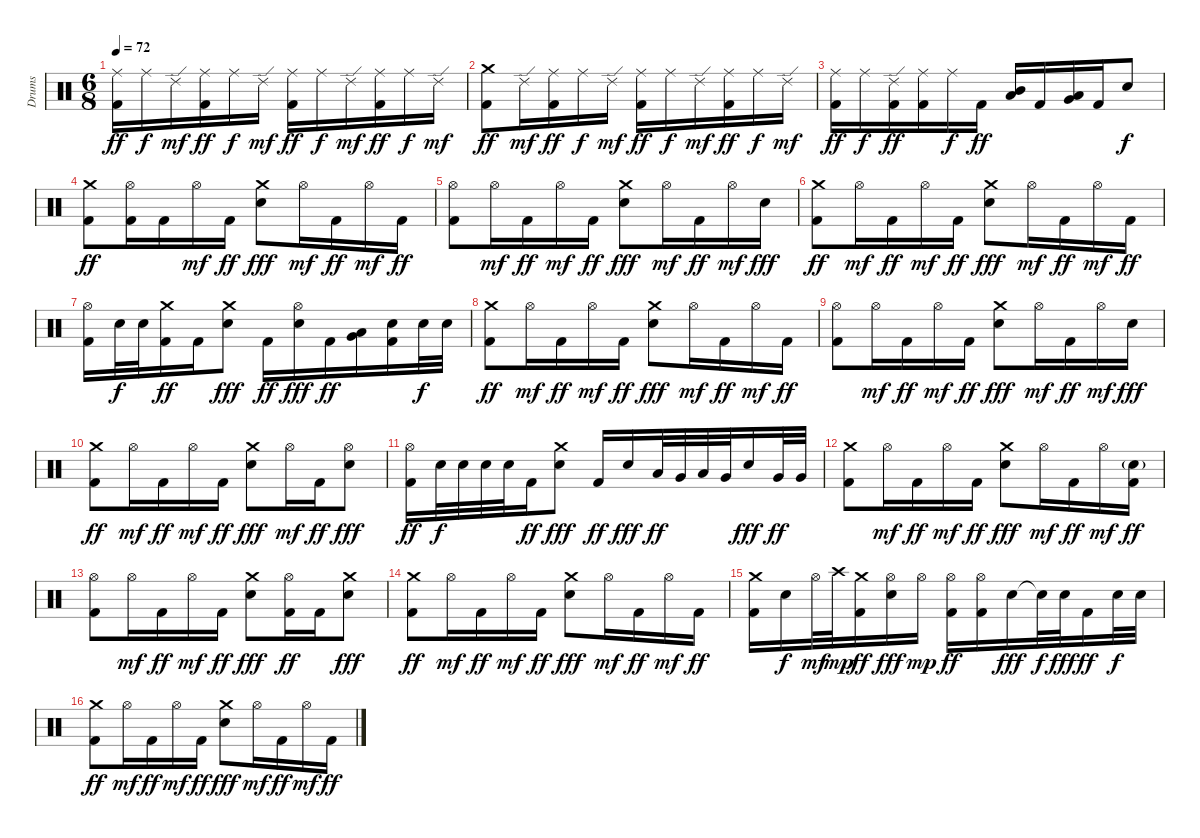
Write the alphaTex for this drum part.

\track ("Drums" "Drums") {instrument percussion}
\staff {score}
\articulation defaults
\ts (6 8)
\tempo 72
\clef neutral
\ks c
("Ride (middle)" "Kick (hit) 2").16{dy ff} "Ride (middle)".16{dy f} "Ride (edge) 2".16{dy mf} ("Ride (middle)" "Kick (hit) 2").16{dy ff} "Ride (middle)".16{dy f} "Ride (edge) 2".16{dy mf} ("Ride (middle)" "Kick (hit) 2").16{dy ff} "Ride (middle)".16{dy f} "Ride (edge) 2".16{dy mf} ("Ride (middle)" "Kick (hit) 2").16{dy ff} "Ride (middle)".16{dy f} "Ride (edge) 2".16{dy mf} |
("Crash medium (hit)" "Kick (hit) 2").8{dy ff} "Ride (edge) 2".16{dy mf} ("Ride (middle)" "Kick (hit) 2").16{dy ff} "Ride (middle)".16{dy f} "Ride (edge) 2".16{dy mf} ("Ride (middle)" "Kick (hit) 2").16{dy ff} "Ride (middle)".16{dy f} "Ride (edge) 2".16{dy mf} ("Ride (middle)" "Kick (hit) 2").16{dy ff} "Ride (middle)".16{dy f} "Ride (edge) 2".16{dy mf} |
("Ride (middle)" "Kick (hit) 2").16{dy ff} "Ride (middle)".16{dy f} ("Ride (edge) 2" "Kick (hit) 2").16{dy ff} ("Ride (middle)" "Kick (hit) 2").16 "Ride (middle)".16{dy f} "Kick (hit) 2".16{dy ff} ("Mid Tom (hit)" "Low Tom (hit)").16 "Kick (hit) 2".16 ("Low Tom (hit)" "Very Low Tom (hit)").16 "Kick (hit) 2".16 "Snare (hit) 2".8{dy f} |
("Crash medium (hit)" "Kick (hit) 2").8{dy ff} ("Hi-Hat (open)" "Kick (hit) 2").16 "Kick (hit) 2".16 "Hi-Hat (open)".16{dy mf} "Kick (hit) 2".16{dy ff} ("Crash medium (hit)" "Snare (hit) 2").8{dy fff} "Hi-Hat (open)".16{dy mf} "Kick (hit) 2".16{dy ff} "Hi-Hat (open)".16{dy mf} "Kick (hit) 2".16{dy ff} |
("Hi-Hat (open)" "Kick (hit) 2").8 "Hi-Hat (open)".16{dy mf} "Kick (hit) 2".16{dy ff} "Hi-Hat (open)".16{dy mf} "Kick (hit) 2".16{dy ff} ("Crash medium (hit)" "Snare (hit) 2").8{dy fff} "Hi-Hat (open)".16{dy mf} "Kick (hit) 2".16{dy ff} "Hi-Hat (open)".16{dy mf} "Snare (hit) 2".16{dy fff} |
("Crash medium (hit)" "Kick (hit) 2").8{dy ff} "Hi-Hat (open)".16{dy mf} "Kick (hit) 2".16{dy ff} "Hi-Hat (open)".16{dy mf} "Kick (hit) 2".16{dy ff} ("Crash medium (hit)" "Snare (hit) 2").8{dy fff} "Hi-Hat (open)".16{dy mf} "Kick (hit) 2".16{dy ff} "Hi-Hat (open)".16{dy mf} "Kick (hit) 2".16{dy ff} |
("Hi-Hat (open)" "Kick (hit) 2").16 "Snare (hit) 2".32{dy f} "Snare (hit) 2".32 ("Crash medium (hit)" "Kick (hit) 2").16{dy ff} "Kick (hit) 2".16 ("Crash medium (hit)" "Snare (hit) 2").8{dy fff} "Kick (hit) 2".16{dy ff} ("Hi-Hat (open)" "Snare (hit) 2").16{dy fff} "Kick (hit) 2".16{dy ff} ("Low Tom (hit)" "Very Low Tom (hit)").16 ("Snare (hit) 2" "Kick (hit) 2").16 "Snare (hit) 2".32{dy f} "Snare (hit) 2".32 |
("Crash medium (hit)" "Kick (hit) 2").8{dy ff} "Hi-Hat (open)".16{dy mf} "Kick (hit) 2".16{dy ff} "Hi-Hat (open)".16{dy mf} "Kick (hit) 2".16{dy ff} ("Crash medium (hit)" "Snare (hit) 2").8{dy fff} "Hi-Hat (open)".16{dy mf} "Kick (hit) 2".16{dy ff} "Hi-Hat (open)".16{dy mf} "Kick (hit) 2".16{dy ff} |
("Hi-Hat (open)" "Kick (hit) 2").8 "Hi-Hat (open)".16{dy mf} "Kick (hit) 2".16{dy ff} "Hi-Hat (open)".16{dy mf} "Kick (hit) 2".16{dy ff} ("Crash medium (hit)" "Snare (hit) 2").8{dy fff} "Hi-Hat (open)".16{dy mf} "Kick (hit) 2".16{dy ff} "Hi-Hat (open)".16{dy mf} "Snare (hit) 2".16{dy fff} |
("Crash medium (hit)" "Kick (hit) 2").8{dy ff} "Hi-Hat (open)".16{dy mf} "Kick (hit) 2".16{dy ff} "Hi-Hat (open)".16{dy mf} "Kick (hit) 2".16{dy ff} ("Crash medium (hit)" "Snare (hit) 2").8{dy fff} "Hi-Hat (open)".16{dy mf} "Kick (hit) 2".16{dy ff} ("Hi-Hat (open)" "Snare (hit) 2").8{dy fff} |
("Hi-Hat (open)" "Kick (hit) 2").16{dy ff} "Snare (hit) 2".32{dy f} "Snare (hit) 2".32 "Snare (hit) 2".32 "Snare (hit) 2".32 "Kick (hit) 2".16{dy ff} ("Crash medium (hit)" "Snare (hit) 2").8{dy fff} "Kick (hit) 2".16{dy ff} "Snare (hit) 2".16{dy fff} "Low Tom (hit)".32{dy ff} "Very Low Tom (hit)".32 "Low Tom (hit)".32 "Very Low Tom (hit)".32 "Snare (hit) 2".16{dy fff} "Very Low Tom (hit)".32{dy ff} "Very Low Tom (hit)".32 |
("Crash medium (hit)" "Kick (hit) 2").8 "Hi-Hat (open)".16{dy mf} "Kick (hit) 2".16{dy ff} "Hi-Hat (open)".16{dy mf} "Kick (hit) 2".16{dy ff} ("Crash medium (hit)" "Snare (hit) 2").8{dy fff} "Hi-Hat (open)".16{dy mf} "Kick (hit) 2".16{dy ff} "Hi-Hat (open)".16{dy mf} ("Snare (hit) 2"{g} "Kick (hit) 2").16{dy ff} |
("Hi-Hat (open)" "Kick (hit) 2").8 "Hi-Hat (open)".16{dy mf} "Kick (hit) 2".16{dy ff} "Hi-Hat (open)".16{dy mf} "Kick (hit) 2".16{dy ff} ("Crash medium (hit)" "Snare (hit) 2").8{dy fff} ("Hi-Hat (open)" "Kick (hit) 2").16{dy ff} "Kick (hit) 2".16 ("Crash medium (hit)" "Snare (hit) 2").8{dy fff} |
("Crash medium (hit)" "Kick (hit) 2").8{dy ff} "Hi-Hat (open)".16{dy mf} "Kick (hit) 2".16{dy ff} "Hi-Hat (open)".16{dy mf} "Kick (hit) 2".16{dy ff} ("Crash medium (hit)" "Snare (hit) 2").8{dy fff} "Hi-Hat (open)".16{dy mf} "Kick (hit) 2".16{dy ff} "Hi-Hat (open)".16{dy mf} "Kick (hit) 2".16{dy ff} |
("Crash medium (hit)" "Kick (hit) 2").16 "Snare (hit) 2".16{dy f} "Hi-Hat (open)".32{dy mf} "Crash high (hit)".32{dy mp} ("Crash medium (hit)" "Kick (hit) 2").16{dy ff} ("Hi-Hat (open)" "Snare (hit) 2").16{dy fff} "Hi-Hat (open)".16{dy mp} ("Hi-Hat (open)" "Kick (hit) 2").16{dy ff} ("Hi-Hat (open)" "Kick (hit) 2").16 "Snare (hit) 2".16{dy fff} "Snare (hit)"{t}.32{dy f} "Snare (hit) 2".32{dy fff} "Kick (hit) 2".16{dy ff} "Snare (hit) 2".32{dy f} "Snare (hit) 2".32 |
("Crash medium (hit)" "Kick (hit) 2").8{dy ff} "Hi-Hat (open)".16{dy mf} "Kick (hit) 2".16{dy ff} "Hi-Hat (open)".16{dy mf} "Kick (hit) 2".16{dy ff} ("Crash medium (hit)" "Snare (hit) 2").8{dy fff} "Hi-Hat (open)".16{dy mf} "Kick (hit) 2".16{dy ff} "Hi-Hat (open)".16{dy mf} "Kick (hit) 2".16{dy ff}
